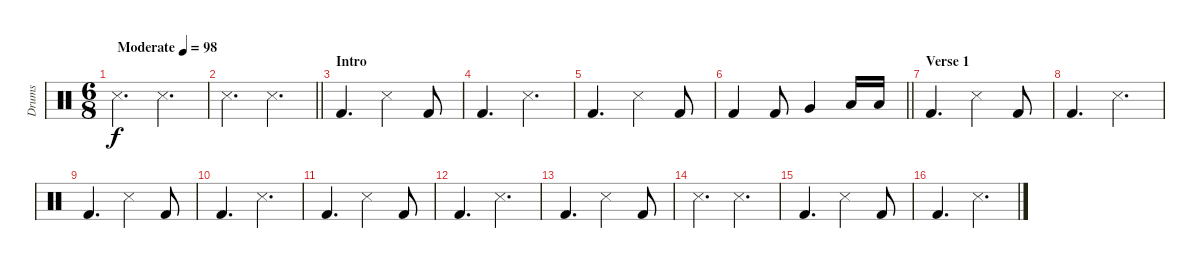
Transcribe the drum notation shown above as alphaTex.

\track ("Drums" "Drums") {instrument percussion}
\staff {score}
\articulation defaults
\ts (6 8)
\tempo (98 "Moderate")
\clef neutral
\ks c "Snare (side stick) 3".4{d dy f} "Snare (side stick) 3".4{d}
|
\barLineRight lightlight "Snare (side stick) 3".4{d} "Snare (side stick) 3".4{d}
|
\section ("" "Intro")
"Kick (hit) 2".4{d} "Snare (side stick) 3".4 "Kick (hit) 2".8 |
"Kick (hit) 2".4{d} "Snare (side stick) 3".4{d} |
"Kick (hit) 2".4{d} "Snare (side stick) 3".4 "Kick (hit) 2".8 |
\barLineRight lightlight "Kick (hit) 2".4 "Kick (hit) 2".8 "Very Low Tom (hit)".4 "Low Tom (hit)".16 "Low Tom (hit)".16
|
\section ("" "Verse 1")
"Kick (hit) 2".4{d} "Snare (side stick) 3".4 "Kick (hit) 2".8 |
"Kick (hit) 2".4{d} "Snare (side stick) 3".4{d} |
"Kick (hit) 2".4{d} "Snare (side stick) 3".4 "Kick (hit) 2".8 |
"Kick (hit) 2".4{d} "Snare (side stick) 3".4{d} |
"Kick (hit) 2".4{d} "Snare (side stick) 3".4 "Kick (hit) 2".8 |
"Kick (hit) 2".4{d} "Snare (side stick) 3".4{d} |
"Kick (hit) 2".4{d} "Snare (side stick) 3".4 "Kick (hit) 2".8 |
"Snare (side stick) 3".4{d} "Snare (side stick) 3".4{d} |
"Kick (hit) 2".4{d} "Snare (side stick) 3".4 "Kick (hit) 2".8 |
"Kick (hit) 2".4{d} "Snare (side stick) 3".4{d}
